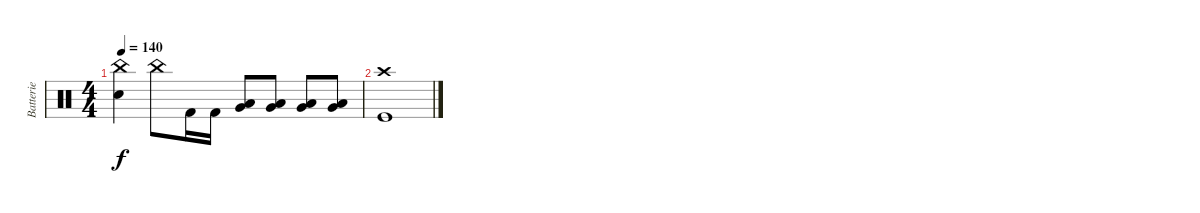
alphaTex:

\track ("Batterie" "Batterie") {instrument percussion}
\staff {score}
\articulation defaults
\ts (4 4)
\tempo 140
\clef neutral
\ks c
("China (hit)" "Electric Snare (hit)").4{dy f} "China (hit)".8 "Kick (hit) 2".16 "Kick (hit) 2".16 ("Low Tom (hit)" "Very Low Tom (hit)").8{bu 60} ("Low Tom (hit)" "Very Low Tom (hit)").8{bu 60} ("Very Low Tom (hit)" "Low Floor Tom (hit)").8{bu 60} ("Very Low Tom (hit)" "Low Floor Tom (hit)").8{bu 60} |
("Crash high (hit)" "Kick (hit)").1
